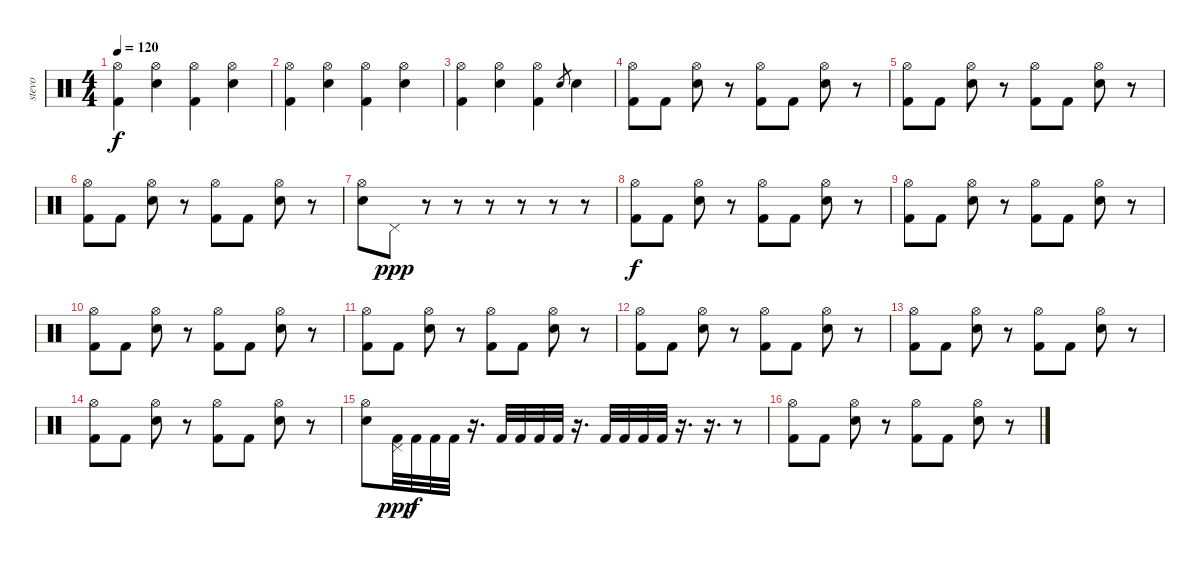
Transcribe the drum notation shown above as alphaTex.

\track ("stevo" "stevo") {instrument percussion}
\staff {score}
\articulation defaults
\ts (4 4)
\tempo 120
\clef neutral
\ks c
("Hi-Hat (open)" "Kick (hit) 2").4{dy f} ("Hi-Hat (open)" "Electric Snare (hit)").4 ("Hi-Hat (open)" "Kick (hit) 2").4 ("Hi-Hat (open)" "Electric Snare (hit)").4 |
("Hi-Hat (open)" "Kick (hit) 2").4 ("Hi-Hat (open)" "Electric Snare (hit)").4 ("Hi-Hat (open)" "Kick (hit) 2").4 ("Hi-Hat (open)" "Electric Snare (hit)").4 |
("Hi-Hat (open)" "Kick (hit) 2").4 ("Hi-Hat (open)" "Electric Snare (hit)").4 ("Hi-Hat (open)" "Kick (hit) 2").4 "Electric Snare (hit)".8{gr} "Electric Snare (hit)".4 |
("Hi-Hat (open)" "Kick (hit) 2").8 "Kick (hit) 2".8 ("Hi-Hat (open)" "Electric Snare (hit)").8 r.8 ("Hi-Hat (open)" "Kick (hit) 2").8 "Kick (hit) 2".8 ("Hi-Hat (open)" "Electric Snare (hit)").8 r.8 |
("Hi-Hat (open)" "Kick (hit) 2").8 "Kick (hit) 2".8 ("Hi-Hat (open)" "Electric Snare (hit)").8 r.8 ("Hi-Hat (open)" "Kick (hit) 2").8 "Kick (hit) 2".8 ("Hi-Hat (open)" "Electric Snare (hit)").8 r.8 |
("Hi-Hat (open)" "Kick (hit) 2").8 "Kick (hit) 2".8 ("Hi-Hat (open)" "Electric Snare (hit)").8 r.8 ("Hi-Hat (open)" "Kick (hit) 2").8 "Kick (hit) 2".8 ("Hi-Hat (open)" "Electric Snare (hit)").8 r.8 |
("Hi-Hat (open)" "Electric Snare (hit)").8 "Pedal Hi-Hat (hit)".8{dy ppp} r.8 r.8 r.8 r.8 r.8 r.8 |
("Hi-Hat (open)" "Kick (hit) 2").8{dy f} "Kick (hit) 2".8 ("Hi-Hat (open)" "Electric Snare (hit)").8 r.8 ("Hi-Hat (open)" "Kick (hit) 2").8 "Kick (hit) 2".8 ("Hi-Hat (open)" "Electric Snare (hit)").8 r.8 |
("Hi-Hat (open)" "Kick (hit) 2").8 "Kick (hit) 2".8 ("Hi-Hat (open)" "Electric Snare (hit)").8 r.8 ("Hi-Hat (open)" "Kick (hit) 2").8 "Kick (hit) 2".8 ("Hi-Hat (open)" "Electric Snare (hit)").8 r.8 |
("Hi-Hat (open)" "Kick (hit) 2").8 "Kick (hit) 2".8 ("Hi-Hat (open)" "Electric Snare (hit)").8 r.8 ("Hi-Hat (open)" "Kick (hit) 2").8 "Kick (hit) 2".8 ("Hi-Hat (open)" "Electric Snare (hit)").8 r.8 |
("Hi-Hat (open)" "Kick (hit) 2").8 "Kick (hit) 2".8 ("Hi-Hat (open)" "Electric Snare (hit)").8 r.8 ("Hi-Hat (open)" "Kick (hit) 2").8 "Kick (hit) 2".8 ("Hi-Hat (open)" "Electric Snare (hit)").8 r.8 |
("Hi-Hat (open)" "Kick (hit) 2").8 "Kick (hit) 2".8 ("Hi-Hat (open)" "Electric Snare (hit)").8 r.8 ("Hi-Hat (open)" "Kick (hit) 2").8 "Kick (hit) 2".8 ("Hi-Hat (open)" "Electric Snare (hit)").8 r.8 |
("Hi-Hat (open)" "Kick (hit) 2").8 "Kick (hit) 2".8 ("Hi-Hat (open)" "Electric Snare (hit)").8 r.8 ("Hi-Hat (open)" "Kick (hit) 2").8 "Kick (hit) 2".8 ("Hi-Hat (open)" "Electric Snare (hit)").8 r.8 |
("Hi-Hat (open)" "Kick (hit) 2").8 "Kick (hit) 2".8 ("Hi-Hat (open)" "Electric Snare (hit)").8 r.8 ("Hi-Hat (open)" "Kick (hit) 2").8 "Kick (hit) 2".8 ("Hi-Hat (open)" "Electric Snare (hit)").8 r.8 |
("Hi-Hat (open)" "Electric Snare (hit)").8 ("Pedal Hi-Hat (hit)" "Kick (hit) 2").32{dy ppp} "Kick (hit) 2".32{dy f} "Kick (hit) 2".32 "Kick (hit) 2".32 r.16{d} "Kick (hit) 2".32 "Kick (hit) 2".32 "Kick (hit) 2".32 "Kick (hit) 2".32 r.16{d} "Kick (hit) 2".32 "Kick (hit) 2".32 "Kick (hit) 2".32 "Kick (hit) 2".32 r.16{d} r.16{d} r.8 |
("Hi-Hat (open)" "Kick (hit) 2").8 "Kick (hit) 2".8 ("Hi-Hat (open)" "Electric Snare (hit)").8 r.8 ("Hi-Hat (open)" "Kick (hit) 2").8 "Kick (hit) 2".8 ("Hi-Hat (open)" "Electric Snare (hit)").8 r.8
